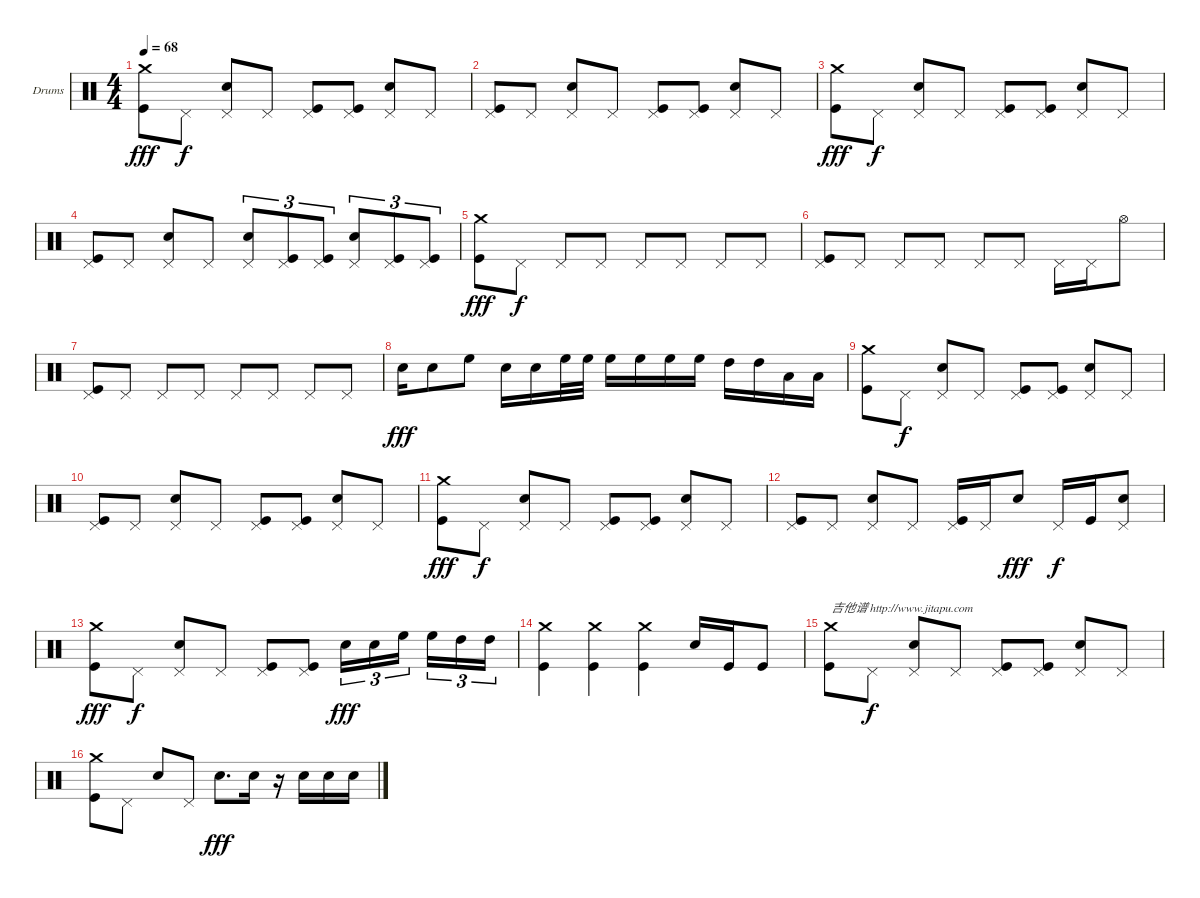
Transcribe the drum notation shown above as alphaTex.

\bracketExtendMode groupsimilarinstruments
\firstSystemTrackNameOrientation horizontal
\otherSystemsTrackNameOrientation horizontal
\track ("Drumkit" "Drums") {instrument percussion}
\staff {score}
\articulation defaults
\ts (4 4)
\tempo 68
\clef neutral
\ks c
("Crash medium (hit)" "Kick (hit)").8{dy fff} "Pedal Hi-Hat (hit)".8{dy f} ("Pedal Hi-Hat (hit)" "Snare (hit) 2").8 "Pedal Hi-Hat (hit)".8 ("Pedal Hi-Hat (hit)" "Kick (hit)").8 ("Pedal Hi-Hat (hit)" "Kick (hit)").8 ("Pedal Hi-Hat (hit)" "Snare (hit) 2").8 "Pedal Hi-Hat (hit)".8 |
("Pedal Hi-Hat (hit)" "Kick (hit)").8 "Pedal Hi-Hat (hit)".8 ("Pedal Hi-Hat (hit)" "Snare (hit) 2").8 "Pedal Hi-Hat (hit)".8 ("Pedal Hi-Hat (hit)" "Kick (hit)").8 ("Pedal Hi-Hat (hit)" "Kick (hit)").8 ("Pedal Hi-Hat (hit)" "Snare (hit) 2").8 "Pedal Hi-Hat (hit)".8 |
("Crash medium (hit)" "Kick (hit)").8{dy fff} "Pedal Hi-Hat (hit)".8{dy f} ("Pedal Hi-Hat (hit)" "Snare (hit) 2").8 "Pedal Hi-Hat (hit)".8 ("Pedal Hi-Hat (hit)" "Kick (hit)").8 ("Pedal Hi-Hat (hit)" "Kick (hit)").8 ("Pedal Hi-Hat (hit)" "Snare (hit) 2").8 "Pedal Hi-Hat (hit)".8 |
("Pedal Hi-Hat (hit)" "Kick (hit)").8 "Pedal Hi-Hat (hit)".8 ("Pedal Hi-Hat (hit)" "Snare (hit) 2").8 "Pedal Hi-Hat (hit)".8 ("Pedal Hi-Hat (hit)" "Snare (hit) 2").8{tu (3 2)} ("Pedal Hi-Hat (hit)" "Kick (hit)").8{tu (3 2)} ("Pedal Hi-Hat (hit)" "Kick (hit)").8{tu (3 2)} ("Pedal Hi-Hat (hit)" "Snare (hit) 2").8{tu (3 2)} ("Pedal Hi-Hat (hit)" "Kick (hit)").8{tu (3 2)} ("Pedal Hi-Hat (hit)" "Kick (hit)").8{tu (3 2)} |
("Crash medium (hit)" "Kick (hit)").8{dy fff} "Pedal Hi-Hat (hit)".8{dy f} "Pedal Hi-Hat (hit)".8 "Pedal Hi-Hat (hit)".8 "Pedal Hi-Hat (hit)".8 "Pedal Hi-Hat (hit)".8 "Pedal Hi-Hat (hit)".8 "Pedal Hi-Hat (hit)".8 |
("Pedal Hi-Hat (hit)" "Kick (hit)").8 "Pedal Hi-Hat (hit)".8 "Pedal Hi-Hat (hit)".8 "Pedal Hi-Hat (hit)".8 "Pedal Hi-Hat (hit)".8 "Pedal Hi-Hat (hit)".8 "Pedal Hi-Hat (hit)".16 "Pedal Hi-Hat (hit)".16 "Hi-Hat (open)".8 |
("Pedal Hi-Hat (hit)" "Kick (hit)").8 "Pedal Hi-Hat (hit)".8 "Pedal Hi-Hat (hit)".8 "Pedal Hi-Hat (hit)".8 "Pedal Hi-Hat (hit)".8 "Pedal Hi-Hat (hit)".8 "Pedal Hi-Hat (hit)".8 "Pedal Hi-Hat (hit)".8 |
"Snare (hit) 2".16{dy fff} "Snare (hit) 2".8 "High Floor Tom (hit)".8 "Snare (hit) 2".16 "Snare (hit) 2".16 "High Floor Tom (hit)".32 "High Floor Tom (hit)".32 "High Floor Tom (hit)".16 "High Floor Tom (hit)".16 "High Floor Tom (hit)".16 "High Floor Tom (hit)".16 "High Tom (hit)".16 "High Tom (hit)".16 "Low Tom (hit)".16 "Low Tom (hit)".16 |
("Crash medium (hit)" "Kick (hit)").8 "Pedal Hi-Hat (hit)".8{dy f} ("Pedal Hi-Hat (hit)" "Snare (hit) 2").8 "Pedal Hi-Hat (hit)".8 ("Pedal Hi-Hat (hit)" "Kick (hit)").8 ("Pedal Hi-Hat (hit)" "Kick (hit)").8 ("Pedal Hi-Hat (hit)" "Snare (hit) 2").8 "Pedal Hi-Hat (hit)".8 |
("Pedal Hi-Hat (hit)" "Kick (hit)").8 "Pedal Hi-Hat (hit)".8 ("Pedal Hi-Hat (hit)" "Snare (hit) 2").8 "Pedal Hi-Hat (hit)".8 ("Pedal Hi-Hat (hit)" "Kick (hit)").8 ("Pedal Hi-Hat (hit)" "Kick (hit)").8 ("Pedal Hi-Hat (hit)" "Snare (hit) 2").8 "Pedal Hi-Hat (hit)".8 |
("Crash medium (hit)" "Kick (hit)").8{dy fff} "Pedal Hi-Hat (hit)".8{dy f} ("Pedal Hi-Hat (hit)" "Snare (hit) 2").8 "Pedal Hi-Hat (hit)".8 ("Pedal Hi-Hat (hit)" "Kick (hit)").8 ("Pedal Hi-Hat (hit)" "Kick (hit)").8 ("Pedal Hi-Hat (hit)" "Snare (hit) 2").8 "Pedal Hi-Hat (hit)".8 |
("Pedal Hi-Hat (hit)" "Kick (hit)").8 "Pedal Hi-Hat (hit)".8 ("Pedal Hi-Hat (hit)" "Snare (hit) 2").8 "Pedal Hi-Hat (hit)".8 ("Pedal Hi-Hat (hit)" "Kick (hit)").16 "Pedal Hi-Hat (hit)".16 "Snare (hit) 2".8{dy fff} "Pedal Hi-Hat (hit)".16{dy f} "Kick (hit)".16 ("Pedal Hi-Hat (hit)" "Snare (hit) 2").8 |
("Crash medium (hit)" "Kick (hit)").8{dy fff} "Pedal Hi-Hat (hit)".8{dy f} ("Pedal Hi-Hat (hit)" "Snare (hit) 2").8 "Pedal Hi-Hat (hit)".8 ("Pedal Hi-Hat (hit)" "Kick (hit)").8 ("Pedal Hi-Hat (hit)" "Kick (hit)").8 "Snare (hit) 2".16{tu (3 2) dy fff} "Snare (hit) 2".16{tu (3 2)} "High Floor Tom (hit)".16{tu (3 2)} "High Floor Tom (hit)".16{tu (3 2)} "High Tom (hit)".16{tu (3 2)} "High Tom (hit)".16{tu (3 2)} |
("Crash medium (hit)" "Kick (hit)").4 ("Crash medium (hit)" "Kick (hit)").4 ("Crash medium (hit)" "Kick (hit)").4 "Snare (hit) 2".16 "Kick (hit)".16 "Kick (hit)".8 |
("Crash medium (hit)" "Kick (hit)").8{txt "吉他谱 http://www.jitapu.com"} "Pedal Hi-Hat (hit)".8{dy f} ("Pedal Hi-Hat (hit)" "Snare (hit) 2").8 "Pedal Hi-Hat (hit)".8 ("Pedal Hi-Hat (hit)" "Kick (hit)").8 ("Pedal Hi-Hat (hit)" "Kick (hit)").8 ("Pedal Hi-Hat (hit)" "Snare (hit) 2").8 "Pedal Hi-Hat (hit)".8 |
("Crash medium (hit)" "Kick (hit)").8 "Pedal Hi-Hat (hit)".8 "Snare (hit) 2".8 "Pedal Hi-Hat (hit)".8 "Snare (hit) 2".8{d dy fff} "Snare (hit) 2".16 r.16 "Snare (hit) 2".16 "Snare (hit) 2".16 "Snare (hit) 2".16
